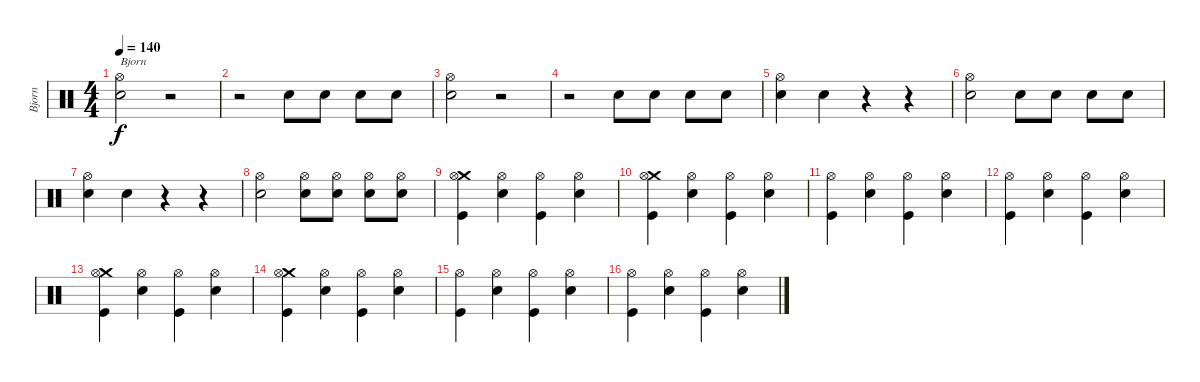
\track ("Bjorn " "Bjorn ") {instrument percussion}
\staff {score}
\articulation defaults
\ts (4 4)
\tempo 140
\clef neutral
\ks c
("Hi-Hat (open)" "Electric Snare (hit)").2{txt "Bjorn" dy f} r.2 |
r.2 "Electric Snare (hit)".8 "Electric Snare (hit)".8 "Electric Snare (hit)".8 "Electric Snare (hit)".8 |
("Hi-Hat (open)" "Electric Snare (hit)").2 r.2 |
r.2 "Electric Snare (hit)".8 "Electric Snare (hit)".8 "Electric Snare (hit)".8 "Electric Snare (hit)".8 |
("Hi-Hat (open)" "Electric Snare (hit)").4 "Electric Snare (hit)".4 r.4 r.4 |
("Hi-Hat (open)" "Electric Snare (hit)").2 "Electric Snare (hit)".8 "Electric Snare (hit)".8 "Electric Snare (hit)".8 "Electric Snare (hit)".8 |
("Hi-Hat (open)" "Electric Snare (hit)").4 "Electric Snare (hit)".4 r.4 r.4 |
("Hi-Hat (open)" "Electric Snare (hit)").2 ("Hi-Hat (open)" "Electric Snare (hit)").8 ("Hi-Hat (open)" "Electric Snare (hit)").8 ("Hi-Hat (open)" "Electric Snare (hit)").8 ("Hi-Hat (open)" "Electric Snare (hit)").8 |
("Crash medium (hit)" "Hi-Hat (open)" "Kick (hit)").4 ("Hi-Hat (open)" "Electric Snare (hit)").4 ("Hi-Hat (open)" "Kick (hit)").4 ("Hi-Hat (open)" "Electric Snare (hit)").4 |
("Crash medium (hit)" "Hi-Hat (open)" "Kick (hit)").4 ("Hi-Hat (open)" "Electric Snare (hit)").4 ("Hi-Hat (open)" "Kick (hit)").4 ("Hi-Hat (open)" "Electric Snare (hit)").4 |
("Hi-Hat (open)" "Kick (hit)").4 ("Hi-Hat (open)" "Electric Snare (hit)").4 ("Hi-Hat (open)" "Kick (hit)").4 ("Hi-Hat (open)" "Electric Snare (hit)").4 |
("Hi-Hat (open)" "Kick (hit)").4 ("Hi-Hat (open)" "Electric Snare (hit)").4 ("Hi-Hat (open)" "Kick (hit)").4 ("Hi-Hat (open)" "Electric Snare (hit)").4 |
("Crash medium (hit)" "Hi-Hat (open)" "Kick (hit)").4 ("Hi-Hat (open)" "Electric Snare (hit)").4 ("Hi-Hat (open)" "Kick (hit)").4 ("Hi-Hat (open)" "Electric Snare (hit)").4 |
("Crash medium (hit)" "Hi-Hat (open)" "Kick (hit)").4 ("Hi-Hat (open)" "Electric Snare (hit)").4 ("Hi-Hat (open)" "Kick (hit)").4 ("Hi-Hat (open)" "Electric Snare (hit)").4 |
("Hi-Hat (open)" "Kick (hit)").4 ("Hi-Hat (open)" "Electric Snare (hit)").4 ("Hi-Hat (open)" "Kick (hit)").4 ("Hi-Hat (open)" "Electric Snare (hit)").4 |
("Hi-Hat (open)" "Kick (hit)").4 ("Hi-Hat (open)" "Electric Snare (hit)").4 ("Hi-Hat (open)" "Kick (hit)").4 ("Hi-Hat (open)" "Electric Snare (hit)").4
